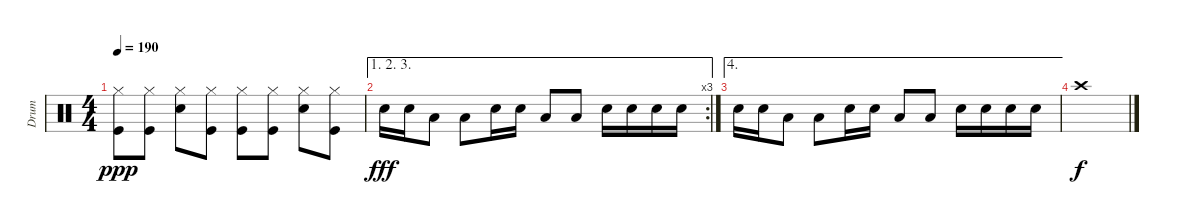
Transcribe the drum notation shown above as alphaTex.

\track ("Drum" "Drum") {instrument percussion}
\staff {score}
\articulation defaults
\ts (4 4)
\tempo 190
\clef neutral
\ks c
("Hi-Hat (closed)" "Kick (hit)").8{dy ppp} ("Hi-Hat (closed)" "Kick (hit)").8 ("Hi-Hat (closed)" "Snare (hit) 2").8 ("Hi-Hat (closed)" "Kick (hit)").8 ("Hi-Hat (closed)" "Kick (hit)").8 ("Hi-Hat (closed)" "Kick (hit)").8 ("Hi-Hat (closed)" "Snare (hit) 2").8 ("Hi-Hat (closed)" "Kick (hit)").8 |
\ae (1 2 3)
\rc 3 "Snare (hit) 2".16{dy fff} "Snare (hit) 2".16 "Low Tom (hit)".8 "Low Tom (hit)".8 "Snare (hit) 2".16 "Snare (hit) 2".16 "Low Tom (hit)".8 "Low Tom (hit)".8 "Snare (hit) 2".16 "Snare (hit) 2".16 "Snare (hit) 2".16 "Snare (hit) 2".16
|
\ae 4 "Snare (hit) 2".16 "Snare (hit) 2".16 "Low Tom (hit)".8 "Low Tom (hit)".8 "Snare (hit) 2".16 "Snare (hit) 2".16 "Low Tom (hit)".8 "Low Tom (hit)".8 "Snare (hit) 2".16 "Snare (hit) 2".16 "Snare (hit) 2".16 "Snare (hit) 2".16
|
"Crash high (hit)".1{dy f}
